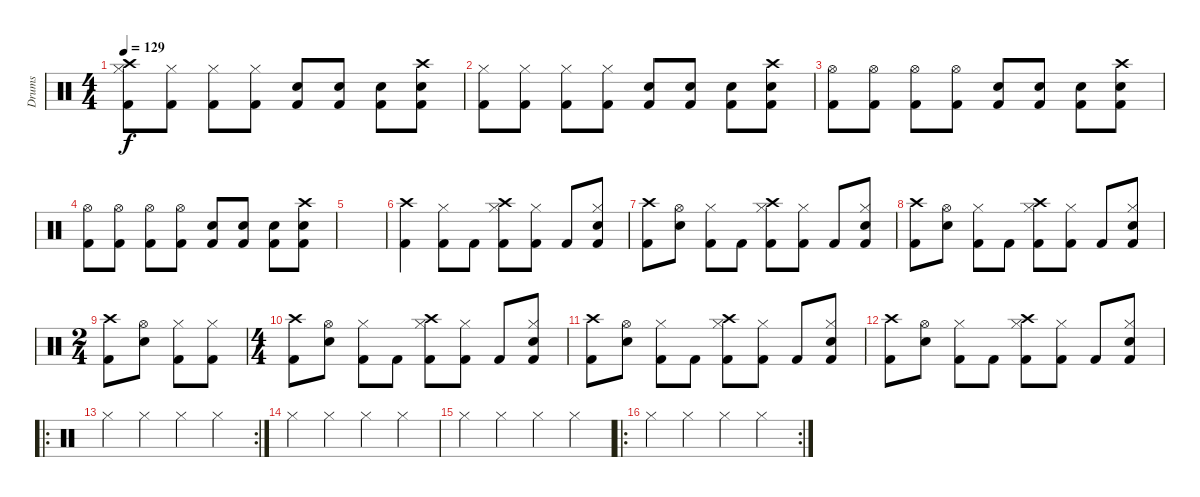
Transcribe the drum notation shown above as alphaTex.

\track ("Drums" "Drums") {instrument percussion}
\staff {score}
\articulation defaults
\ts (4 4)
\tempo 129
\clef neutral
\ks c
("Crash high (hit)" "Kick (hit) 2" "Hi-Hat (closed)").8{dy f} ("Kick (hit) 2" "Hi-Hat (closed)").8 ("Kick (hit) 2" "Hi-Hat (closed)").8 ("Kick (hit) 2" "Hi-Hat (closed)").8 ("Kick (hit) 2" "Electric Snare (hit)").8 ("Kick (hit) 2" "Electric Snare (hit)").8 ("Kick (hit) 2" "Electric Snare (hit)").8 ("Crash high (hit)" "Kick (hit) 2" "Electric Snare (hit)").8 |
("Kick (hit) 2" "Hi-Hat (closed)").8 ("Kick (hit) 2" "Hi-Hat (closed)").8 ("Kick (hit) 2" "Hi-Hat (closed)").8 ("Kick (hit) 2" "Hi-Hat (closed)").8 ("Kick (hit) 2" "Electric Snare (hit)").8 ("Kick (hit) 2" "Electric Snare (hit)").8 ("Kick (hit) 2" "Electric Snare (hit)").8 ("Crash high (hit)" "Kick (hit) 2" "Electric Snare (hit)").8 |
("Kick (hit) 2" "Hi-Hat (open)").8 ("Kick (hit) 2" "Hi-Hat (open)").8 ("Kick (hit) 2" "Hi-Hat (open)").8 ("Kick (hit) 2" "Hi-Hat (open)").8 ("Kick (hit) 2" "Electric Snare (hit)").8 ("Kick (hit) 2" "Electric Snare (hit)").8 ("Kick (hit) 2" "Electric Snare (hit)").8 ("Crash high (hit)" "Kick (hit) 2" "Electric Snare (hit)").8 |
("Kick (hit) 2" "Hi-Hat (open)").8 ("Kick (hit) 2" "Hi-Hat (open)").8 ("Kick (hit) 2" "Hi-Hat (open)").8 ("Kick (hit) 2" "Hi-Hat (open)").8 ("Kick (hit) 2" "Electric Snare (hit)").8 ("Kick (hit) 2" "Electric Snare (hit)").8 ("Kick (hit) 2" "Electric Snare (hit)").8 ("Crash high (hit)" "Kick (hit) 2" "Electric Snare (hit)").8 |
|
("Kick (hit) 2" "Crash high (hit)").4 ("Kick (hit) 2" "Hi-Hat (closed)").8 "Kick (hit) 2".8 ("Kick (hit) 2" "Hi-Hat (closed)" "Crash high (hit)").8 ("Kick (hit) 2" "Hi-Hat (closed)").8 "Kick (hit) 2".8 ("Electric Snare (hit)" "Hi-Hat (closed)" "Kick (hit) 2").8 |
("Kick (hit) 2" "Crash high (hit)").8 ("Hi-Hat (open)" "Electric Snare (hit)").8 ("Kick (hit) 2" "Hi-Hat (closed)").8 "Kick (hit) 2".8 ("Kick (hit) 2" "Hi-Hat (closed)" "Crash high (hit)").8 ("Kick (hit) 2" "Hi-Hat (closed)").8 "Kick (hit) 2".8 ("Electric Snare (hit)" "Hi-Hat (closed)" "Kick (hit) 2").8 |
("Kick (hit) 2" "Crash high (hit)").8 ("Hi-Hat (open)" "Electric Snare (hit)").8 ("Kick (hit) 2" "Hi-Hat (closed)").8 "Kick (hit) 2".8 ("Kick (hit) 2" "Hi-Hat (closed)" "Crash high (hit)").8 ("Kick (hit) 2" "Hi-Hat (closed)").8 "Kick (hit) 2".8 ("Electric Snare (hit)" "Hi-Hat (closed)" "Kick (hit) 2").8 |
\ts (2 4)
("Kick (hit) 2" "Crash high (hit)").8 ("Hi-Hat (open)" "Electric Snare (hit)").8 ("Kick (hit) 2" "Hi-Hat (closed)").8 ("Kick (hit) 2" "Hi-Hat (closed)").8 |
\ts (4 4)
("Kick (hit) 2" "Crash high (hit)").8 ("Hi-Hat (open)" "Electric Snare (hit)").8 ("Kick (hit) 2" "Hi-Hat (closed)").8 "Kick (hit) 2".8 ("Kick (hit) 2" "Hi-Hat (closed)" "Crash high (hit)").8 ("Kick (hit) 2" "Hi-Hat (closed)").8 "Kick (hit) 2".8 ("Electric Snare (hit)" "Hi-Hat (closed)" "Kick (hit) 2").8 |
("Kick (hit) 2" "Crash high (hit)").8 ("Hi-Hat (open)" "Electric Snare (hit)").8 ("Kick (hit) 2" "Hi-Hat (closed)").8 "Kick (hit) 2".8 ("Kick (hit) 2" "Hi-Hat (closed)" "Crash high (hit)").8 ("Kick (hit) 2" "Hi-Hat (closed)").8 "Kick (hit) 2".8 ("Electric Snare (hit)" "Hi-Hat (closed)" "Kick (hit) 2").8 |
("Kick (hit) 2" "Crash high (hit)").8 ("Hi-Hat (open)" "Electric Snare (hit)").8 ("Kick (hit) 2" "Hi-Hat (closed)").8 "Kick (hit) 2".8 ("Kick (hit) 2" "Hi-Hat (closed)" "Crash high (hit)").8 ("Kick (hit) 2" "Hi-Hat (closed)").8 "Kick (hit) 2".8 ("Electric Snare (hit)" "Hi-Hat (closed)" "Kick (hit) 2").8 |
\ro
\rc 2 "Hi-Hat (closed)".4 "Hi-Hat (closed)".4 "Hi-Hat (closed)".4 "Hi-Hat (closed)".4
|
"Hi-Hat (closed)".4 "Hi-Hat (closed)".4 "Hi-Hat (closed)".4 "Hi-Hat (closed)".4 |
"Hi-Hat (closed)".4 "Hi-Hat (closed)".4 "Hi-Hat (closed)".4 "Hi-Hat (closed)".4 |
\ro
\rc 2 "Hi-Hat (closed)".4 "Hi-Hat (closed)".4 "Hi-Hat (closed)".4 "Hi-Hat (closed)".4
